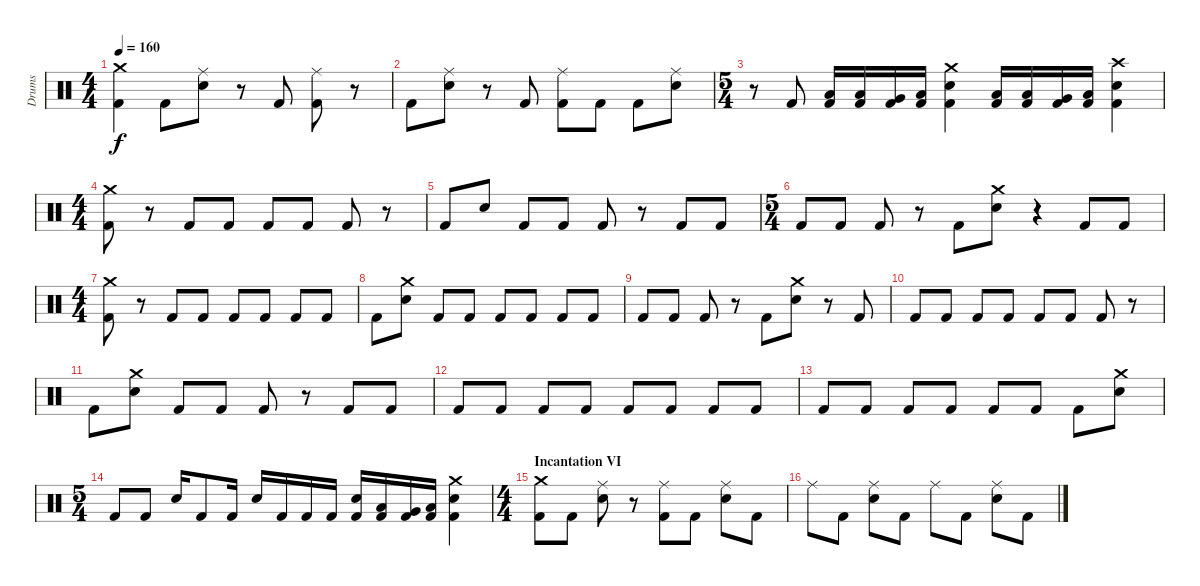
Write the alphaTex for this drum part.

\track ("Drums" "Drums") {instrument percussion}
\staff {score}
\articulation defaults
\ts (4 4)
\tempo 160
\clef neutral
\ks c
("Crash medium (hit)" "Kick (hit) 2").4{dy f} "Kick (hit) 2".8 ("Ride (middle)" "Electric Snare (hit)").8 r.8 "Kick (hit) 2".8 ("Ride (middle)" "Kick (hit) 2").8 r.8 |
"Kick (hit) 2".8 ("Ride (middle)" "Electric Snare (hit)").8 r.8 "Kick (hit) 2".8 ("Ride (middle)" "Kick (hit) 2").8 "Kick (hit) 2".8 "Kick (hit) 2".8 ("Ride (middle)" "Electric Snare (hit)").8 |
\ts (5 4)
r.8 "Kick (hit) 2".8 ("Low Tom (hit)" "Kick (hit) 2").16 ("Low Tom (hit)" "Kick (hit) 2").16 ("Very Low Tom (hit)" "Kick (hit) 2").16 ("Low Floor Tom (hit)" "Kick (hit) 2").16 ("Crash medium (hit)" "Electric Snare (hit)" "Kick (hit) 2").4 ("Low Tom (hit)" "Kick (hit) 2").16 ("Low Tom (hit)" "Kick (hit) 2").16 ("Very Low Tom (hit)" "Kick (hit) 2").16 ("Low Floor Tom (hit)" "Kick (hit) 2").16 ("Crash high (hit)" "Electric Snare (hit)" "Kick (hit) 2").4 |
\ts (4 4)
\section ("" "")
("Crash medium (hit)" "Kick (hit) 2").8 r.8 "Kick (hit) 2".8 "Kick (hit) 2".8 "Kick (hit) 2".8 "Kick (hit) 2".8 "Kick (hit) 2".8 r.8 |
"Kick (hit) 2".8 "Electric Snare (hit)".8 "Kick (hit) 2".8 "Kick (hit) 2".8 "Kick (hit) 2".8 r.8 "Kick (hit) 2".8 "Kick (hit) 2".8 |
\ts (5 4)
"Kick (hit) 2".8 "Kick (hit) 2".8 "Kick (hit) 2".8 r.8 "Kick (hit) 2".8 ("Crash medium (hit)" "Electric Snare (hit)").8 r.4 "Kick (hit) 2".8 "Kick (hit) 2".8 |
\ts (4 4)
("Crash medium (hit)" "Kick (hit) 2").8 r.8 "Kick (hit) 2".8 "Kick (hit) 2".8 "Kick (hit) 2".8 "Kick (hit) 2".8 "Kick (hit) 2".8 "Kick (hit) 2".8 |
"Kick (hit) 2".8 ("Crash medium (hit)" "Electric Snare (hit)").8 "Kick (hit) 2".8 "Kick (hit) 2".8 "Kick (hit) 2".8 "Kick (hit) 2".8 "Kick (hit) 2".8 "Kick (hit) 2".8 |
"Kick (hit) 2".8 "Kick (hit) 2".8 "Kick (hit) 2".8 r.8 "Kick (hit) 2".8 ("Crash medium (hit)" "Electric Snare (hit)").8 r.8 "Kick (hit) 2".8 |
"Kick (hit) 2".8 "Kick (hit) 2".8 "Kick (hit) 2".8 "Kick (hit) 2".8 "Kick (hit) 2".8 "Kick (hit) 2".8 "Kick (hit) 2".8 r.8 |
"Kick (hit) 2".8 ("Crash medium (hit)" "Electric Snare (hit)").8 "Kick (hit) 2".8 "Kick (hit) 2".8 "Kick (hit) 2".8 r.8 "Kick (hit) 2".8 "Kick (hit) 2".8 |
"Kick (hit) 2".8 "Kick (hit) 2".8 "Kick (hit) 2".8 "Kick (hit) 2".8 "Kick (hit) 2".8 "Kick (hit) 2".8 "Kick (hit) 2".8 "Kick (hit) 2".8 |
"Kick (hit) 2".8 "Kick (hit) 2".8 "Kick (hit) 2".8 "Kick (hit) 2".8 "Kick (hit) 2".8 "Kick (hit) 2".8 "Kick (hit) 2".8 ("Crash medium (hit)" "Electric Snare (hit)").8 |
\ts (5 4)
"Kick (hit) 2".8 "Kick (hit) 2".8 "Electric Snare (hit)".16 "Kick (hit) 2".8 "Kick (hit) 2".16 "Electric Snare (hit)".16 "Kick (hit) 2".16 "Kick (hit) 2".16 "Kick (hit) 2".16 ("Electric Snare (hit)" "Kick (hit) 2").16 ("Low Tom (hit)" "Kick (hit) 2").16 ("Very Low Tom (hit)" "Kick (hit) 2").16 ("Low Floor Tom (hit)" "Kick (hit) 2").16 ("Crash medium (hit)" "Electric Snare (hit)" "Kick (hit) 2").4 |
\ts (4 4)
\section ("" "Incantation VI")
("Crash medium (hit)" "Kick (hit) 2").8 "Kick (hit) 2".8 ("Ride (middle)" "Electric Snare (hit)").8 r.8 ("Ride (middle)" "Kick (hit) 2").8 "Kick (hit) 2".8 ("Ride (middle)" "Electric Snare (hit)").8 "Kick (hit) 2".8 |
"Ride (middle)".8 "Kick (hit) 2".8 ("Ride (middle)" "Electric Snare (hit)").8 "Kick (hit) 2".8 "Ride (middle)".8 "Kick (hit) 2".8 ("Ride (middle)" "Electric Snare (hit)").8 "Kick (hit) 2".8
